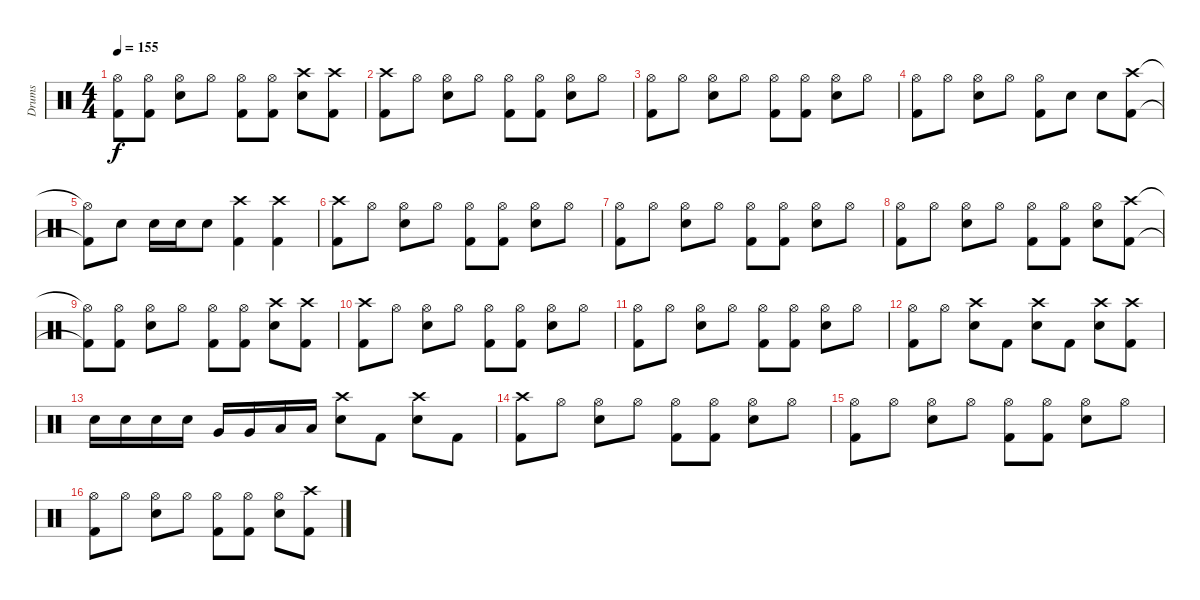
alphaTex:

\track ("Drums" "Drums") {instrument percussion}
\staff {score}
\articulation defaults
\ts (4 4)
\tempo 155
\clef neutral
\ks c
("Hi-Hat (open)"{t} "Kick (hit) 2"{t}).8{dy f} ("Hi-Hat (open)" "Kick (hit) 2").8 ("Hi-Hat (open)" "Electric Snare (hit)").8 "Hi-Hat (open)".8 ("Hi-Hat (open)" "Kick (hit) 2").8 ("Hi-Hat (open)" "Kick (hit) 2").8 ("Crash high (hit)" "Electric Snare (hit)").8 ("Crash high (hit)" "Kick (hit) 2").8 |
("Crash high (hit)" "Kick (hit) 2").8 "Hi-Hat (open)".8 ("Hi-Hat (open)" "Electric Snare (hit)").8 "Hi-Hat (open)".8 ("Hi-Hat (open)" "Kick (hit) 2").8 ("Hi-Hat (open)" "Kick (hit) 2").8 ("Hi-Hat (open)" "Electric Snare (hit)").8 "Hi-Hat (open)".8 |
("Hi-Hat (open)" "Kick (hit) 2").8 "Hi-Hat (open)".8 ("Hi-Hat (open)" "Electric Snare (hit)").8 "Hi-Hat (open)".8 ("Hi-Hat (open)" "Kick (hit) 2").8 ("Hi-Hat (open)" "Kick (hit) 2").8 ("Hi-Hat (open)" "Electric Snare (hit)").8 "Hi-Hat (open)".8 |
("Hi-Hat (open)" "Kick (hit) 2").8 "Hi-Hat (open)".8 ("Hi-Hat (open)" "Electric Snare (hit)").8 "Hi-Hat (open)".8 ("Hi-Hat (open)" "Kick (hit) 2").8 "Electric Snare (hit)".8 "Electric Snare (hit)".8 ("Crash high (hit)" "Kick (hit) 2").8 |
("Hi-Hat (open)"{t} "Kick (hit) 2"{t}).8 "Electric Snare (hit)".8 "Electric Snare (hit)".16 "Electric Snare (hit)".16 "Electric Snare (hit)".8 ("Crash high (hit)" "Kick (hit) 2").4 ("Crash high (hit)" "Kick (hit) 2").4 |
("Crash high (hit)" "Kick (hit) 2").8 "Hi-Hat (open)".8 ("Hi-Hat (open)" "Electric Snare (hit)").8 "Hi-Hat (open)".8 ("Hi-Hat (open)" "Kick (hit) 2").8 ("Hi-Hat (open)" "Kick (hit) 2").8 ("Hi-Hat (open)" "Electric Snare (hit)").8 "Hi-Hat (open)".8 |
("Hi-Hat (open)" "Kick (hit) 2").8 "Hi-Hat (open)".8 ("Hi-Hat (open)" "Electric Snare (hit)").8 "Hi-Hat (open)".8 ("Hi-Hat (open)" "Kick (hit) 2").8 ("Hi-Hat (open)" "Kick (hit) 2").8 ("Hi-Hat (open)" "Electric Snare (hit)").8 "Hi-Hat (open)".8 |
("Hi-Hat (open)" "Kick (hit) 2").8 "Hi-Hat (open)".8 ("Hi-Hat (open)" "Electric Snare (hit)").8 "Hi-Hat (open)".8 ("Hi-Hat (open)" "Kick (hit) 2").8 ("Hi-Hat (open)" "Kick (hit) 2").8 ("Hi-Hat (open)" "Electric Snare (hit)").8 ("Crash high (hit)" "Kick (hit) 2").8 |
("Hi-Hat (open)"{t} "Kick (hit) 2"{t}).8 ("Hi-Hat (open)" "Kick (hit) 2").8 ("Hi-Hat (open)" "Electric Snare (hit)").8 "Hi-Hat (open)".8 ("Hi-Hat (open)" "Kick (hit) 2").8 ("Hi-Hat (open)" "Kick (hit) 2").8 ("Crash high (hit)" "Electric Snare (hit)").8 ("Crash high (hit)" "Kick (hit) 2").8 |
("Crash high (hit)" "Kick (hit) 2").8 "Hi-Hat (open)".8 ("Hi-Hat (open)" "Electric Snare (hit)").8 "Hi-Hat (open)".8 ("Hi-Hat (open)" "Kick (hit) 2").8 ("Hi-Hat (open)" "Kick (hit) 2").8 ("Hi-Hat (open)" "Electric Snare (hit)").8 "Hi-Hat (open)".8 |
("Hi-Hat (open)" "Kick (hit) 2").8 "Hi-Hat (open)".8 ("Hi-Hat (open)" "Electric Snare (hit)").8 "Hi-Hat (open)".8 ("Hi-Hat (open)" "Kick (hit) 2").8 ("Hi-Hat (open)" "Kick (hit) 2").8 ("Hi-Hat (open)" "Electric Snare (hit)").8 "Hi-Hat (open)".8 |
("Hi-Hat (open)" "Kick (hit) 2").8 "Hi-Hat (open)".8 ("Crash high (hit)" "Electric Snare (hit)").8 "Kick (hit) 2".8 ("Crash high (hit)" "Electric Snare (hit)").8 "Kick (hit) 2".8 ("Crash high (hit)" "Electric Snare (hit)").8 ("Crash high (hit)" "Kick (hit) 2").8 |
"Electric Snare (hit)".16 "Electric Snare (hit)".16 "Electric Snare (hit)".16 "Electric Snare (hit)".16 "Very Low Tom (hit)".16 "Very Low Tom (hit)".16 "Low Floor Tom (hit)".16 "Low Floor Tom (hit)".16 ("Crash high (hit)" "Electric Snare (hit)").8 "Kick (hit) 2".8 ("Crash high (hit)" "Electric Snare (hit)").8 "Kick (hit) 2".8 |
("Crash high (hit)" "Kick (hit) 2").8 "Hi-Hat (open)".8 ("Hi-Hat (open)" "Electric Snare (hit)").8 "Hi-Hat (open)".8 ("Hi-Hat (open)" "Kick (hit) 2").8 ("Hi-Hat (open)" "Kick (hit) 2").8 ("Hi-Hat (open)" "Electric Snare (hit)").8 "Hi-Hat (open)".8 |
("Hi-Hat (open)" "Kick (hit) 2").8 "Hi-Hat (open)".8 ("Hi-Hat (open)" "Electric Snare (hit)").8 "Hi-Hat (open)".8 ("Hi-Hat (open)" "Kick (hit) 2").8 ("Hi-Hat (open)" "Kick (hit) 2").8 ("Hi-Hat (open)" "Electric Snare (hit)").8 "Hi-Hat (open)".8 |
("Hi-Hat (open)" "Kick (hit) 2").8 "Hi-Hat (open)".8 ("Hi-Hat (open)" "Electric Snare (hit)").8 "Hi-Hat (open)".8 ("Hi-Hat (open)" "Kick (hit) 2").8 ("Hi-Hat (open)" "Kick (hit) 2").8 ("Hi-Hat (open)" "Electric Snare (hit)").8 ("Crash high (hit)" "Kick (hit) 2").8
